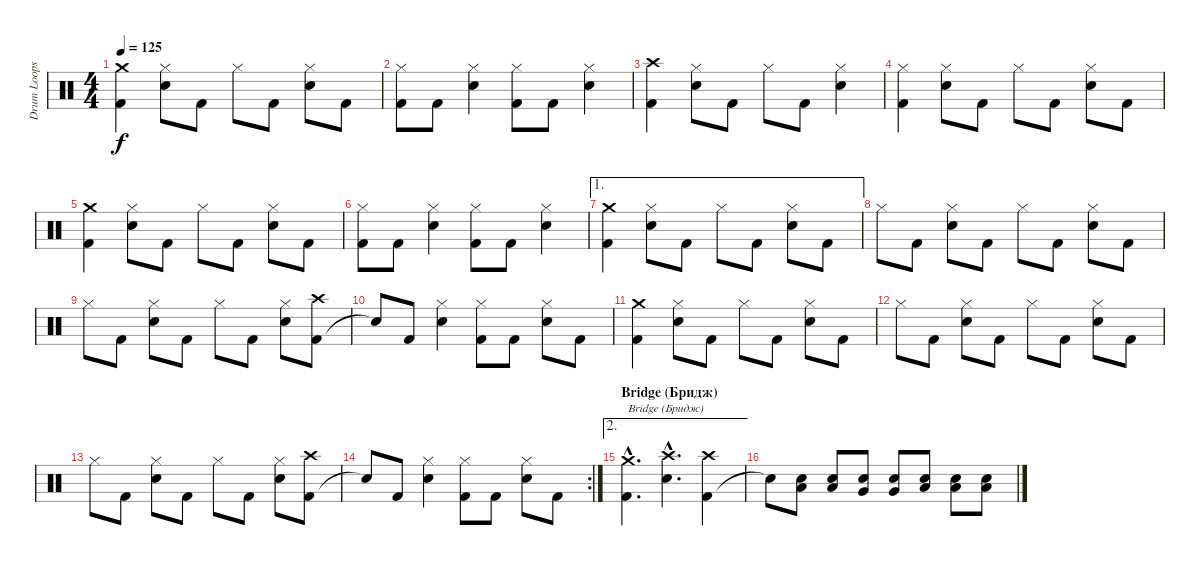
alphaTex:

\track ("Drum Loops (Дурачок)" "Drum Loops") {instrument percussion}
\staff {score}
\articulation defaults
\ts (4 4)
\tempo 125
\clef neutral
\ks c
("Kick (hit) 2" "Crash medium (hit)").4{dy f} ("Snare (hit) 2" "Hi-Hat (closed)").8 "Kick (hit) 2".8 "Hi-Hat (closed)".8 "Kick (hit) 2".8 ("Snare (hit) 2" "Hi-Hat (closed)").8 "Kick (hit) 2".8 |
("Kick (hit) 2" "Hi-Hat (closed)").8 "Kick (hit) 2".8 ("Snare (hit) 2" "Hi-Hat (closed)").4 ("Kick (hit) 2" "Hi-Hat (closed)").8 "Kick (hit) 2".8 ("Snare (hit) 2" "Hi-Hat (closed)").4 |
("Kick (hit) 2" "Crash high (hit)").4 ("Snare (hit) 2" "Hi-Hat (closed)").8 "Kick (hit) 2".8 "Hi-Hat (closed)".8 "Kick (hit) 2".8 ("Snare (hit) 2" "Hi-Hat (closed)").4 |
("Kick (hit) 2" "Hi-Hat (closed)").4 ("Snare (hit) 2" "Hi-Hat (closed)").8 "Kick (hit) 2".8 "Hi-Hat (closed)".8 "Kick (hit) 2".8 ("Snare (hit) 2" "Hi-Hat (closed)").8 "Kick (hit) 2".8 |
("Kick (hit) 2" "Crash medium (hit)").4 ("Snare (hit) 2" "Hi-Hat (closed)").8 "Kick (hit) 2".8 "Hi-Hat (closed)".8 "Kick (hit) 2".8 ("Snare (hit) 2" "Hi-Hat (closed)").8 "Kick (hit) 2".8 |
("Kick (hit) 2" "Hi-Hat (closed)").8 "Kick (hit) 2".8 ("Snare (hit) 2" "Hi-Hat (closed)").4 ("Kick (hit) 2" "Hi-Hat (closed)").8 "Kick (hit) 2".8 ("Snare (hit) 2" "Hi-Hat (closed)").4 |
\ae 1
("Kick (hit) 2" "Crash medium (hit)").4 ("Snare (hit) 2" "Hi-Hat (closed)").8 "Kick (hit) 2".8 "Hi-Hat (closed)".8 "Kick (hit) 2".8 ("Snare (hit) 2" "Hi-Hat (closed)").8 "Kick (hit) 2".8 |
"Hi-Hat (closed)".8 "Kick (hit) 2".8 ("Snare (hit) 2" "Hi-Hat (closed)").8 "Kick (hit) 2".8 "Hi-Hat (closed)".8 "Kick (hit) 2".8 ("Snare (hit) 2" "Hi-Hat (closed)").8 "Kick (hit) 2".8 |
"Hi-Hat (closed)".8 "Kick (hit) 2".8 ("Snare (hit) 2" "Hi-Hat (closed)").8 "Kick (hit) 2".8 "Hi-Hat (closed)".8 "Kick (hit) 2".8 ("Snare (hit) 2" "Hi-Hat (closed)").8 ("Kick (hit) 2" "Crash high (hit)").8 |
"Snare (hit)"{t}.8 "Kick (hit) 2".8 ("Snare (hit) 2" "Hi-Hat (closed)").4 ("Kick (hit) 2" "Hi-Hat (closed)").8 "Kick (hit) 2".8 ("Snare (hit) 2" "Hi-Hat (closed)").8 "Kick (hit) 2".8 |
("Kick (hit) 2" "Crash medium (hit)").4 ("Snare (hit) 2" "Hi-Hat (closed)").8 "Kick (hit) 2".8 "Hi-Hat (closed)".8 "Kick (hit) 2".8 ("Snare (hit) 2" "Hi-Hat (closed)").8 "Kick (hit) 2".8 |
"Hi-Hat (closed)".8 "Kick (hit) 2".8 ("Snare (hit) 2" "Hi-Hat (closed)").8 "Kick (hit) 2".8 "Hi-Hat (closed)".8 "Kick (hit) 2".8 ("Snare (hit) 2" "Hi-Hat (closed)").8 "Kick (hit) 2".8 |
"Hi-Hat (closed)".8 "Kick (hit) 2".8 ("Snare (hit) 2" "Hi-Hat (closed)").8 "Kick (hit) 2".8 "Hi-Hat (closed)".8 "Kick (hit) 2".8 ("Snare (hit) 2" "Hi-Hat (closed)").8 ("Kick (hit) 2" "Crash high (hit)").8 |
\rc 2 "Snare (hit)"{t}.8 "Kick (hit) 2".8
("Snare (hit) 2" "Hi-Hat (closed)").4 ("Kick (hit) 2" "Hi-Hat (closed)").8 "Kick (hit) 2".8 ("Snare (hit) 2" "Hi-Hat (closed)").8 "Kick (hit) 2".8 |
\ae 2
\section ("" "Bridge (Бридж)")
("Kick (hit) 2"{hac} "Crash medium (hit)"{hac}).4{d txt "Bridge (Бридж)"} ("Snare (hit) 2"{hac} "Crash high (hit)"{hac}).4{d} ("Kick (hit) 2" "Crash high (hit)").4 |
"Snare (hit)"{t}.8 ("Snare (hit) 2" "Low Tom (hit)").8 ("Snare (hit) 2" "Low Tom (hit)").8 ("Snare (hit) 2" "Very Low Tom (hit)").8 ("Snare (hit) 2" "Very Low Tom (hit)").8 ("Snare (hit) 2" "Low Floor Tom (hit)").8 ("Snare (hit) 2" "Low Floor Tom (hit)").8 ("Snare (hit) 2" "Low Floor Tom (hit)").8
